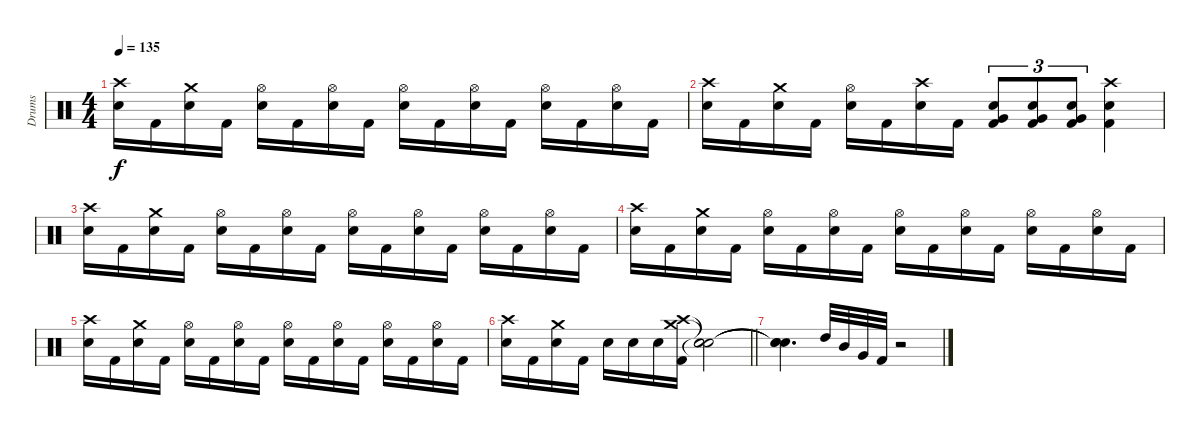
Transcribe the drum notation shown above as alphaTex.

\track ("Drums" "Drums") {instrument percussion}
\staff {score}
\articulation defaults
\ts (4 4)
\tempo 135
\clef neutral
\ks c
("Crash high (hit)" "Snare (hit) 2").16{dy f} "Kick (hit) 2".16 ("Crash medium (hit)" "Snare (hit) 2").16 "Kick (hit) 2".16 ("Hi-Hat (open)" "Snare (hit) 2").16 "Kick (hit) 2".16 ("Hi-Hat (open)" "Snare (hit) 2").16 "Kick (hit) 2".16 ("Hi-Hat (open)" "Snare (hit) 2").16 "Kick (hit) 2".16 ("Hi-Hat (open)" "Snare (hit) 2").16 "Kick (hit) 2".16 ("Hi-Hat (open)" "Snare (hit) 2").16 "Kick (hit) 2".16 ("Hi-Hat (open)" "Snare (hit) 2").16 "Kick (hit) 2".16 |
("Crash high (hit)" "Snare (hit) 2").16 "Kick (hit) 2".16 ("Crash medium (hit)" "Snare (hit) 2").16 "Kick (hit) 2".16 ("Hi-Hat (open)" "Snare (hit) 2").16 "Kick (hit) 2".16 ("Crash high (hit)" "Snare (hit) 2").16 "Kick (hit) 2".16 ("Very Low Tom (hit)" "Snare (hit) 2" "Kick (hit) 2").8{tu (3 2)} ("Very Low Tom (hit)" "Snare (hit) 2" "Kick (hit) 2").8{tu (3 2)} ("Very Low Tom (hit)" "Snare (hit) 2" "Kick (hit) 2").8{tu (3 2)} ("Crash high (hit)" "Snare (hit) 2" "Kick (hit) 2").4 |
("Crash high (hit)" "Snare (hit) 2").16 "Kick (hit) 2".16 ("Crash medium (hit)" "Snare (hit) 2").16 "Kick (hit) 2".16 ("Hi-Hat (open)" "Snare (hit) 2").16 "Kick (hit) 2".16 ("Hi-Hat (open)" "Snare (hit) 2").16 "Kick (hit) 2".16 ("Hi-Hat (open)" "Snare (hit) 2").16 "Kick (hit) 2".16 ("Hi-Hat (open)" "Snare (hit) 2").16 "Kick (hit) 2".16 ("Hi-Hat (open)" "Snare (hit) 2").16 "Kick (hit) 2".16 ("Hi-Hat (open)" "Snare (hit) 2").16 "Kick (hit) 2".16 |
("Crash high (hit)" "Snare (hit) 2").16 "Kick (hit) 2".16 ("Crash medium (hit)" "Snare (hit) 2").16 "Kick (hit) 2".16 ("Hi-Hat (open)" "Snare (hit) 2").16 "Kick (hit) 2".16 ("Hi-Hat (open)" "Snare (hit) 2").16 "Kick (hit) 2".16 ("Hi-Hat (open)" "Snare (hit) 2").16 "Kick (hit) 2".16 ("Hi-Hat (open)" "Snare (hit) 2").16 "Kick (hit) 2".16 ("Hi-Hat (open)" "Snare (hit) 2").16 "Kick (hit) 2".16 ("Hi-Hat (open)" "Snare (hit) 2").16 "Kick (hit) 2".16 |
("Crash high (hit)" "Snare (hit) 2").16 "Kick (hit) 2".16 ("Crash medium (hit)" "Snare (hit) 2").16 "Kick (hit) 2".16 ("Hi-Hat (open)" "Snare (hit) 2").16 "Kick (hit) 2".16 ("Hi-Hat (open)" "Snare (hit) 2").16 "Kick (hit) 2".16 ("Hi-Hat (open)" "Snare (hit) 2").16 "Kick (hit) 2".16 ("Hi-Hat (open)" "Snare (hit) 2").16 "Kick (hit) 2".16 ("Hi-Hat (open)" "Snare (hit) 2").16 "Kick (hit) 2".16 ("Hi-Hat (open)" "Snare (hit) 2").16 "Kick (hit) 2".16 |
\barLineRight lightlight
("Crash high (hit)" "Snare (hit) 2").16 "Kick (hit) 2".16 ("Crash medium (hit)" "Snare (hit) 2").16 "Kick (hit) 2".16 "Snare (hit) 2".16 "Snare (hit) 2".16 "Snare (hit) 2".16 ("Crash high (hit)" "Crash medium (hit)" "Kick (hit) 2").16 ("Snare (hit)"{t} "Snare (hit)"{t} "Snare (hit)"{t}).2 |
("Snare (hit)"{t} "Snare (hit)"{t} "Snare (hit)"{t}).4{d} "High Tom (hit)".32 "Mid Tom (hit)".32 "Very Low Tom (hit)".32 "Kick (hit) 2".32 r.2
